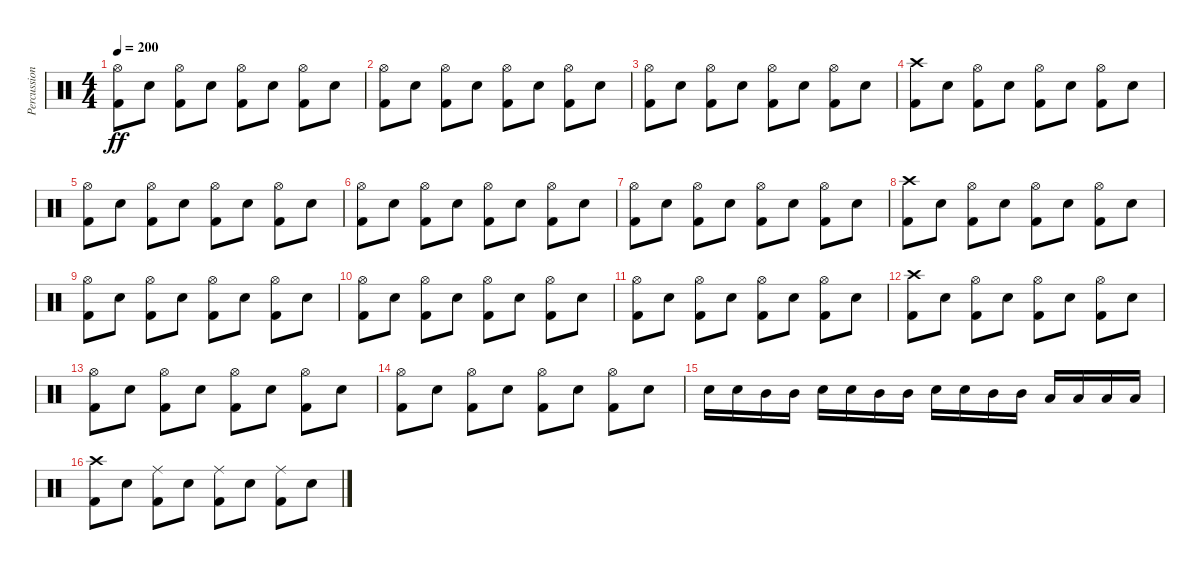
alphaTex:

\track ("Percussion" "Percussion") {instrument percussion}
\staff {score}
\articulation defaults
\ts (4 4)
\tempo 200
\clef neutral
\ks c
("Hi-Hat (open)" "Kick (hit) 2").8{dy ff} "Snare (hit) 2".8 ("Hi-Hat (open)" "Kick (hit) 2").8 "Snare (hit) 2".8 ("Hi-Hat (open)" "Kick (hit) 2").8 "Snare (hit) 2".8 ("Hi-Hat (open)" "Kick (hit) 2").8 "Snare (hit) 2".8 |
("Hi-Hat (open)" "Kick (hit) 2").8 "Snare (hit) 2".8 ("Hi-Hat (open)" "Kick (hit) 2").8 "Snare (hit) 2".8 ("Hi-Hat (open)" "Kick (hit) 2").8 "Snare (hit) 2".8 ("Hi-Hat (open)" "Kick (hit) 2").8 "Snare (hit) 2".8 |
("Hi-Hat (open)" "Kick (hit) 2").8 "Snare (hit) 2".8 ("Hi-Hat (open)" "Kick (hit) 2").8 "Snare (hit) 2".8 ("Hi-Hat (open)" "Kick (hit) 2").8 "Snare (hit) 2".8 ("Hi-Hat (open)" "Kick (hit) 2").8 "Snare (hit) 2".8 |
("Crash high (hit)" "Kick (hit) 2").8 "Snare (hit) 2".8 ("Hi-Hat (open)" "Kick (hit) 2").8 "Snare (hit) 2".8 ("Hi-Hat (open)" "Kick (hit) 2").8 "Snare (hit) 2".8 ("Hi-Hat (open)" "Kick (hit) 2").8 "Snare (hit) 2".8 |
("Hi-Hat (open)" "Kick (hit) 2").8 "Snare (hit) 2".8 ("Hi-Hat (open)" "Kick (hit) 2").8 "Snare (hit) 2".8 ("Hi-Hat (open)" "Kick (hit) 2").8 "Snare (hit) 2".8 ("Hi-Hat (open)" "Kick (hit) 2").8 "Snare (hit) 2".8 |
("Hi-Hat (open)" "Kick (hit) 2").8 "Snare (hit) 2".8 ("Hi-Hat (open)" "Kick (hit) 2").8 "Snare (hit) 2".8 ("Hi-Hat (open)" "Kick (hit) 2").8 "Snare (hit) 2".8 ("Hi-Hat (open)" "Kick (hit) 2").8 "Snare (hit) 2".8 |
("Hi-Hat (open)" "Kick (hit) 2").8 "Snare (hit) 2".8 ("Hi-Hat (open)" "Kick (hit) 2").8 "Snare (hit) 2".8 ("Hi-Hat (open)" "Kick (hit) 2").8 "Snare (hit) 2".8 ("Hi-Hat (open)" "Kick (hit) 2").8 "Snare (hit) 2".8 |
("Crash high (hit)" "Kick (hit) 2").8 "Snare (hit) 2".8 ("Hi-Hat (open)" "Kick (hit) 2").8 "Snare (hit) 2".8 ("Hi-Hat (open)" "Kick (hit) 2").8 "Snare (hit) 2".8 ("Hi-Hat (open)" "Kick (hit) 2").8 "Snare (hit) 2".8 |
("Hi-Hat (open)" "Kick (hit) 2").8 "Snare (hit) 2".8 ("Hi-Hat (open)" "Kick (hit) 2").8 "Snare (hit) 2".8 ("Hi-Hat (open)" "Kick (hit) 2").8 "Snare (hit) 2".8 ("Hi-Hat (open)" "Kick (hit) 2").8 "Snare (hit) 2".8 |
("Hi-Hat (open)" "Kick (hit) 2").8 "Snare (hit) 2".8 ("Hi-Hat (open)" "Kick (hit) 2").8 "Snare (hit) 2".8 ("Hi-Hat (open)" "Kick (hit) 2").8 "Snare (hit) 2".8 ("Hi-Hat (open)" "Kick (hit) 2").8 "Snare (hit) 2".8 |
("Hi-Hat (open)" "Kick (hit) 2").8 "Snare (hit) 2".8 ("Hi-Hat (open)" "Kick (hit) 2").8 "Snare (hit) 2".8 ("Hi-Hat (open)" "Kick (hit) 2").8 "Snare (hit) 2".8 ("Hi-Hat (open)" "Kick (hit) 2").8 "Snare (hit) 2".8 |
("Crash high (hit)" "Kick (hit) 2").8 "Snare (hit) 2".8 ("Hi-Hat (open)" "Kick (hit) 2").8 "Snare (hit) 2".8 ("Hi-Hat (open)" "Kick (hit) 2").8 "Snare (hit) 2".8 ("Hi-Hat (open)" "Kick (hit) 2").8 "Snare (hit) 2".8 |
("Hi-Hat (open)" "Kick (hit) 2").8 "Snare (hit) 2".8 ("Hi-Hat (open)" "Kick (hit) 2").8 "Snare (hit) 2".8 ("Hi-Hat (open)" "Kick (hit) 2").8 "Snare (hit) 2".8 ("Hi-Hat (open)" "Kick (hit) 2").8 "Snare (hit) 2".8 |
("Hi-Hat (open)" "Kick (hit) 2").8 "Snare (hit) 2".8 ("Hi-Hat (open)" "Kick (hit) 2").8 "Snare (hit) 2".8 ("Hi-Hat (open)" "Kick (hit) 2").8 "Snare (hit) 2".8 ("Hi-Hat (open)" "Kick (hit) 2").8 "Snare (hit) 2".8 |
"Snare (hit) 2".16 "Snare (hit) 2".16 "Mid Tom (hit)".16 "Mid Tom (hit)".16 "Snare (hit) 2".16 "Snare (hit) 2".16 "Mid Tom (hit)".16 "Mid Tom (hit)".16 "Snare (hit) 2".16 "Snare (hit) 2".16 "Mid Tom (hit)".16 "Mid Tom (hit)".16 "Low Tom (hit)".16 "Low Tom (hit)".16 "Low Floor Tom (hit)".16 "Low Floor Tom (hit)".16 |
("Crash high (hit)" "Kick (hit) 2").8 "Snare (hit) 2".8 ("Ride (middle)" "Kick (hit) 2").8 "Snare (hit) 2".8 ("Ride (middle)" "Kick (hit) 2").8 "Snare (hit) 2".8 ("Ride (middle)" "Kick (hit) 2").8 "Snare (hit) 2".8
